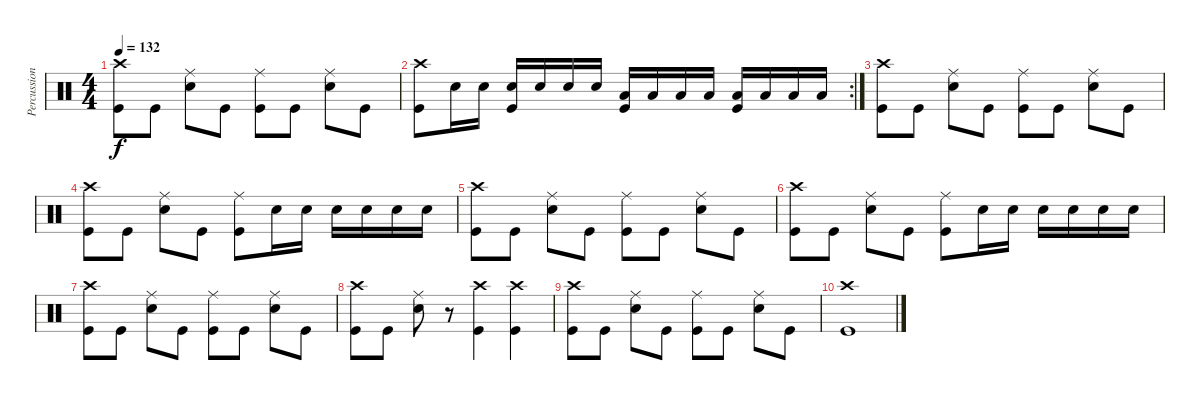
\track ("Percussioni" "Percussion") {instrument percussion}
\staff {score}
\articulation defaults
\ts (4 4)
\tempo 132
\clef neutral
\ks c
("Crash high (hit)" "Kick (hit)").8{dy f} "Kick (hit)".8 ("Ride (middle)" "Snare (hit) 2").8 "Kick (hit)".8 ("Ride (middle)" "Kick (hit)").8 "Kick (hit)".8 ("Ride (middle)" "Snare (hit) 2").8 "Kick (hit)".8 |
\rc 2
("Crash high (hit)" "Kick (hit)").8 "Snare (hit) 2".16 "Snare (hit) 2".16 ("Snare (hit) 2" "Kick (hit)").16 "Snare (hit) 2".16 "Snare (hit) 2".16 "Snare (hit) 2".16 ("Low Tom (hit)" "Kick (hit)").16 "Low Tom (hit)".16 "Low Tom (hit)".16 "Low Tom (hit)".16 ("Low Tom (hit)" "Kick (hit)").16 "Low Tom (hit)".16 "Low Tom (hit)".16 "Low Tom (hit)".16 |
("Crash high (hit)" "Kick (hit)").8 "Kick (hit)".8 ("Ride (middle)" "Snare (hit) 2").8 "Kick (hit)".8 ("Ride (middle)" "Kick (hit)").8 "Kick (hit)".8 ("Ride (middle)" "Snare (hit) 2").8 "Kick (hit)".8 |
("Crash high (hit)" "Kick (hit)").8 "Kick (hit)".8 ("Ride (middle)" "Snare (hit) 2").8 "Kick (hit)".8 ("Ride (middle)" "Kick (hit)").8 "Snare (hit) 2".16 "Snare (hit) 2".16 "Snare (hit) 2".16 "Snare (hit) 2".16 "Snare (hit) 2".16 "Snare (hit) 2".16 |
("Crash high (hit)" "Kick (hit)").8 "Kick (hit)".8 ("Ride (middle)" "Snare (hit) 2").8 "Kick (hit)".8 ("Ride (middle)" "Kick (hit)").8 "Kick (hit)".8 ("Ride (middle)" "Snare (hit) 2").8 "Kick (hit)".8 |
("Crash high (hit)" "Kick (hit)").8 "Kick (hit)".8 ("Ride (middle)" "Snare (hit) 2").8 "Kick (hit)".8 ("Ride (middle)" "Kick (hit)").8 "Snare (hit) 2".16 "Snare (hit) 2".16 "Snare (hit) 2".16 "Snare (hit) 2".16 "Snare (hit) 2".16 "Snare (hit) 2".16 |
("Crash high (hit)" "Kick (hit)").8 "Kick (hit)".8 ("Ride (middle)" "Snare (hit) 2").8 "Kick (hit)".8 ("Ride (middle)" "Kick (hit)").8 "Kick (hit)".8 ("Ride (middle)" "Snare (hit) 2").8 "Kick (hit)".8 |
("Crash high (hit)" "Kick (hit)").8 "Kick (hit)".8 ("Ride (middle)" "Snare (hit) 2").8 r.8 ("Crash high (hit)" "Kick (hit)").4 ("Crash high (hit)" "Kick (hit)").4 |
("Crash high (hit)" "Kick (hit)").8 "Kick (hit)".8 ("Ride (middle)" "Snare (hit) 2").8 "Kick (hit)".8 ("Ride (middle)" "Kick (hit)").8 "Kick (hit)".8 ("Ride (middle)" "Snare (hit) 2").8 "Kick (hit)".8 |
("Crash high (hit)" "Kick (hit)").1
